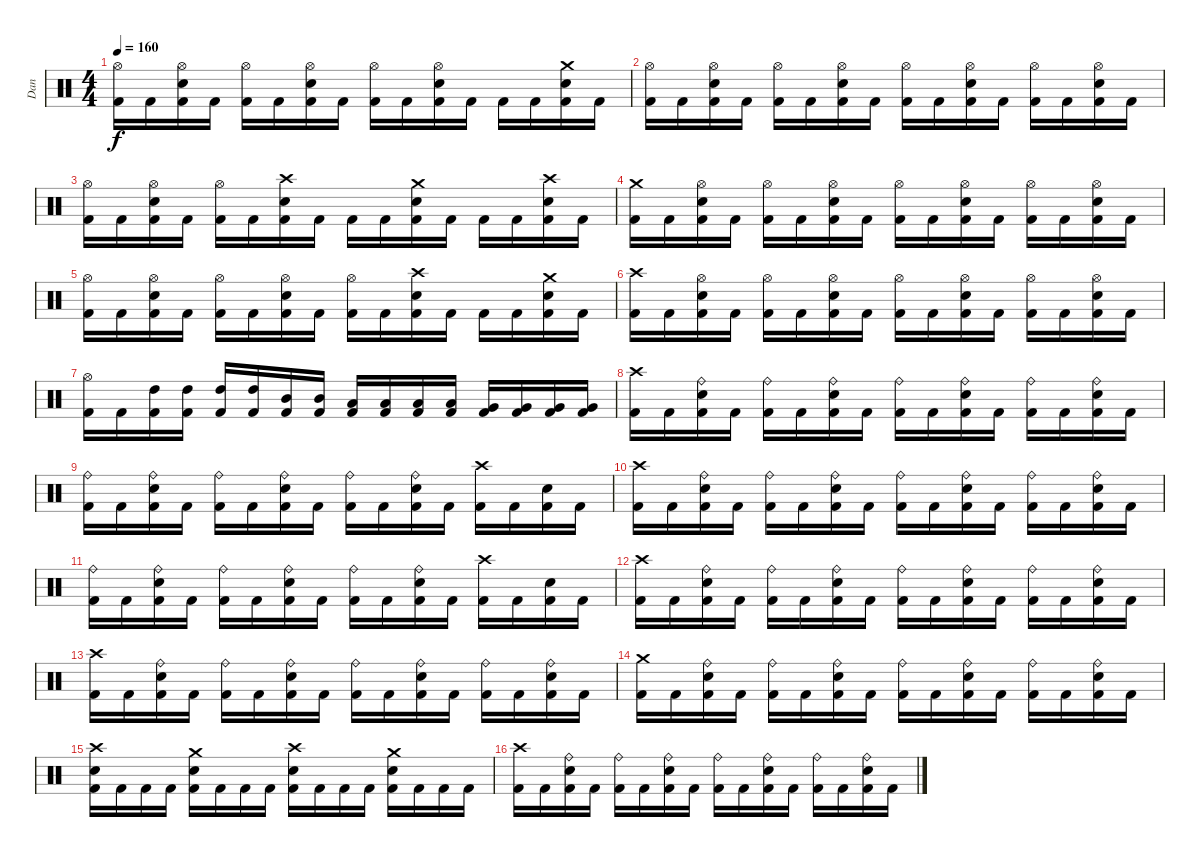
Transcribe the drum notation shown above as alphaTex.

\track ("Dan " "Dan ") {instrument percussion}
\staff {score}
\articulation defaults
\ts (4 4)
\tempo 160
\clef neutral
\ks c
("Kick (hit) 2" "Hi-Hat (open)").16{dy f} "Kick (hit) 2".16 ("Metronome (bell)" "Kick (hit) 2" "Hi-Hat (open)").16 "Kick (hit) 2".16 ("Kick (hit) 2" "Hi-Hat (open)").16 "Kick (hit) 2".16 ("Metronome (bell)" "Kick (hit) 2" "Hi-Hat (open)").16 "Kick (hit) 2".16 ("Kick (hit) 2" "Hi-Hat (open)").16 "Kick (hit) 2".16 ("Metronome (bell)" "Kick (hit) 2" "Hi-Hat (open)").16 "Kick (hit) 2".16 "Kick (hit) 2".16 "Kick (hit) 2".16 ("Metronome (bell)" "Kick (hit) 2" "Crash medium (hit)").16 "Kick (hit) 2".16 |
("Kick (hit) 2" "Hi-Hat (open)").16 "Kick (hit) 2".16 ("Metronome (bell)" "Kick (hit) 2" "Hi-Hat (open)").16 "Kick (hit) 2".16 ("Kick (hit) 2" "Hi-Hat (open)").16 "Kick (hit) 2".16 ("Metronome (bell)" "Kick (hit) 2" "Hi-Hat (open)").16 "Kick (hit) 2".16 ("Kick (hit) 2" "Hi-Hat (open)").16 "Kick (hit) 2".16 ("Metronome (bell)" "Kick (hit) 2" "Hi-Hat (open)").16 "Kick (hit) 2".16 ("Kick (hit) 2" "Hi-Hat (open)").16 "Kick (hit) 2".16 ("Metronome (bell)" "Kick (hit) 2" "Hi-Hat (open)").16 "Kick (hit) 2".16 |
("Kick (hit) 2" "Hi-Hat (open)").16 "Kick (hit) 2".16 ("Metronome (bell)" "Kick (hit) 2" "Hi-Hat (open)").16 "Kick (hit) 2".16 ("Kick (hit) 2" "Hi-Hat (open)").16 "Kick (hit) 2".16 ("Metronome (bell)" "Kick (hit) 2" "Crash high (hit)").16 "Kick (hit) 2".16 "Kick (hit) 2".16 "Kick (hit) 2".16 ("Metronome (bell)" "Kick (hit) 2" "Crash medium (hit)").16 "Kick (hit) 2".16 "Kick (hit) 2".16 "Kick (hit) 2".16 ("Metronome (bell)" "Kick (hit) 2" "Crash high (hit)").16 "Kick (hit) 2".16 |
("Kick (hit) 2" "Crash medium (hit)").16 "Kick (hit) 2".16 ("Metronome (bell)" "Kick (hit) 2" "Hi-Hat (open)").16 "Kick (hit) 2".16 ("Kick (hit) 2" "Hi-Hat (open)").16 "Kick (hit) 2".16 ("Metronome (bell)" "Kick (hit) 2" "Hi-Hat (open)").16 "Kick (hit) 2".16 ("Kick (hit) 2" "Hi-Hat (open)").16 "Kick (hit) 2".16 ("Metronome (bell)" "Kick (hit) 2" "Hi-Hat (open)").16 "Kick (hit) 2".16 ("Kick (hit) 2" "Hi-Hat (open)").16 "Kick (hit) 2".16 ("Metronome (bell)" "Kick (hit) 2" "Hi-Hat (open)").16 "Kick (hit) 2".16 |
("Kick (hit) 2" "Hi-Hat (open)").16 "Kick (hit) 2".16 ("Metronome (bell)" "Kick (hit) 2" "Hi-Hat (open)").16 "Kick (hit) 2".16 ("Kick (hit) 2" "Hi-Hat (open)").16 "Kick (hit) 2".16 ("Metronome (bell)" "Kick (hit) 2" "Hi-Hat (open)").16 "Kick (hit) 2".16 ("Kick (hit) 2" "Hi-Hat (open)").16 "Kick (hit) 2".16 ("Metronome (bell)" "Kick (hit) 2" "Crash high (hit)").16 "Kick (hit) 2".16 "Kick (hit) 2".16 "Kick (hit) 2".16 ("Metronome (bell)" "Kick (hit) 2" "Crash medium (hit)").16 "Kick (hit) 2".16 |
("Kick (hit) 2" "Crash high (hit)").16 "Kick (hit) 2".16 ("Metronome (bell)" "Kick (hit) 2" "Hi-Hat (open)").16 "Kick (hit) 2".16 ("Kick (hit) 2" "Hi-Hat (open)").16 "Kick (hit) 2".16 ("Metronome (bell)" "Kick (hit) 2" "Hi-Hat (open)").16 "Kick (hit) 2".16 ("Kick (hit) 2" "Hi-Hat (open)").16 "Kick (hit) 2".16 ("Metronome (bell)" "Kick (hit) 2" "Hi-Hat (open)").16 "Kick (hit) 2".16 ("Kick (hit) 2" "Hi-Hat (open)").16 "Kick (hit) 2".16 ("Metronome (bell)" "Kick (hit) 2" "Hi-Hat (open)").16 "Kick (hit) 2".16 |
("Kick (hit) 2" "Hi-Hat (open)").16 "Kick (hit) 2".16 ("Kick (hit) 2" "High Tom (hit)").16 ("Kick (hit) 2" "High Tom (hit)").16 ("Kick (hit) 2" "High Tom (hit)").16 ("Kick (hit) 2" "High Tom (hit)").16 ("Kick (hit) 2" "Mid Tom (hit)").16 ("Kick (hit) 2" "Mid Tom (hit)").16 ("Kick (hit) 2" "Low Tom (hit)").16 ("Kick (hit) 2" "Low Tom (hit)").16 ("Kick (hit) 2" "Low Tom (hit)").16 ("Kick (hit) 2" "Low Tom (hit)").16 ("Kick (hit) 2" "Very Low Tom (hit)").16 ("Kick (hit) 2" "Very Low Tom (hit)").16 ("Kick (hit) 2" "Very Low Tom (hit)").16 ("Kick (hit) 2" "Very Low Tom (hit)").16 |
("Kick (hit) 2" "Crash high (hit)").16 "Kick (hit) 2".16 ("Metronome (bell)" "Kick (hit) 2" "Ride (bell)").16 "Kick (hit) 2".16 ("Kick (hit) 2" "Ride (bell)").16 "Kick (hit) 2".16 ("Metronome (bell)" "Kick (hit) 2" "Ride (bell)").16 "Kick (hit) 2".16 ("Kick (hit) 2" "Ride (bell)").16 "Kick (hit) 2".16 ("Metronome (bell)" "Kick (hit) 2" "Ride (bell)").16 "Kick (hit) 2".16 ("Kick (hit) 2" "Ride (bell)").16 "Kick (hit) 2".16 ("Metronome (bell)" "Kick (hit) 2" "Ride (bell)").16 "Kick (hit) 2".16 |
("Kick (hit) 2" "Ride (bell)").16 "Kick (hit) 2".16 ("Metronome (bell)" "Kick (hit) 2" "Ride (bell)").16 "Kick (hit) 2".16 ("Kick (hit) 2" "Ride (bell)").16 "Kick (hit) 2".16 ("Metronome (bell)" "Kick (hit) 2" "Ride (bell)").16 "Kick (hit) 2".16 ("Kick (hit) 2" "Ride (bell)").16 "Kick (hit) 2".16 ("Metronome (bell)" "Kick (hit) 2" "Ride (bell)").16 "Kick (hit) 2".16 ("Kick (hit) 2" "Crash high (hit)").16 "Kick (hit) 2".16 ("Metronome (bell)" "Kick (hit) 2").16 "Kick (hit) 2".16 |
("Kick (hit) 2" "Crash high (hit)").16 "Kick (hit) 2".16 ("Metronome (bell)" "Kick (hit) 2" "Ride (bell)").16 "Kick (hit) 2".16 ("Kick (hit) 2" "Ride (bell)").16 "Kick (hit) 2".16 ("Metronome (bell)" "Kick (hit) 2" "Ride (bell)").16 "Kick (hit) 2".16 ("Kick (hit) 2" "Ride (bell)").16 "Kick (hit) 2".16 ("Metronome (bell)" "Kick (hit) 2" "Ride (bell)").16 "Kick (hit) 2".16 ("Kick (hit) 2" "Ride (bell)").16 "Kick (hit) 2".16 ("Metronome (bell)" "Kick (hit) 2" "Ride (bell)").16 "Kick (hit) 2".16 |
("Kick (hit) 2" "Ride (bell)").16 "Kick (hit) 2".16 ("Metronome (bell)" "Kick (hit) 2" "Ride (bell)").16 "Kick (hit) 2".16 ("Kick (hit) 2" "Ride (bell)").16 "Kick (hit) 2".16 ("Metronome (bell)" "Kick (hit) 2" "Ride (bell)").16 "Kick (hit) 2".16 ("Kick (hit) 2" "Ride (bell)").16 "Kick (hit) 2".16 ("Metronome (bell)" "Kick (hit) 2" "Ride (bell)").16 "Kick (hit) 2".16 ("Kick (hit) 2" "Crash high (hit)").16 "Kick (hit) 2".16 ("Metronome (bell)" "Kick (hit) 2").16 "Kick (hit) 2".16 |
("Kick (hit) 2" "Crash high (hit)").16 "Kick (hit) 2".16 ("Metronome (bell)" "Kick (hit) 2" "Ride (bell)").16 "Kick (hit) 2".16 ("Kick (hit) 2" "Ride (bell)").16 "Kick (hit) 2".16 ("Metronome (bell)" "Kick (hit) 2" "Ride (bell)").16 "Kick (hit) 2".16 ("Kick (hit) 2" "Ride (bell)").16 "Kick (hit) 2".16 ("Metronome (bell)" "Kick (hit) 2" "Ride (bell)").16 "Kick (hit) 2".16 ("Kick (hit) 2" "Ride (bell)").16 "Kick (hit) 2".16 ("Metronome (bell)" "Kick (hit) 2" "Ride (bell)").16 "Kick (hit) 2".16 |
("Kick (hit) 2" "Crash high (hit)").16 "Kick (hit) 2".16 ("Metronome (bell)" "Kick (hit) 2" "Ride (bell)").16 "Kick (hit) 2".16 ("Kick (hit) 2" "Ride (bell)").16 "Kick (hit) 2".16 ("Metronome (bell)" "Kick (hit) 2" "Ride (bell)").16 "Kick (hit) 2".16 ("Kick (hit) 2" "Ride (bell)").16 "Kick (hit) 2".16 ("Metronome (bell)" "Kick (hit) 2" "Ride (bell)").16 "Kick (hit) 2".16 ("Kick (hit) 2" "Ride (bell)").16 "Kick (hit) 2".16 ("Metronome (bell)" "Kick (hit) 2" "Ride (bell)").16 "Kick (hit) 2".16 |
("Kick (hit) 2" "Crash medium (hit)").16 "Kick (hit) 2".16 ("Metronome (bell)" "Kick (hit) 2" "Ride (bell)").16 "Kick (hit) 2".16 ("Kick (hit) 2" "Ride (bell)").16 "Kick (hit) 2".16 ("Metronome (bell)" "Kick (hit) 2" "Ride (bell)").16 "Kick (hit) 2".16 ("Kick (hit) 2" "Ride (bell)").16 "Kick (hit) 2".16 ("Metronome (bell)" "Kick (hit) 2" "Ride (bell)").16 "Kick (hit) 2".16 ("Kick (hit) 2" "Ride (bell)").16 "Kick (hit) 2".16 ("Metronome (bell)" "Kick (hit) 2" "Ride (bell)").16 "Kick (hit) 2".16 |
("Metronome (bell)" "Kick (hit) 2" "Crash high (hit)").16 "Kick (hit) 2".16 "Kick (hit) 2".16 "Kick (hit) 2".16 ("Metronome (bell)" "Kick (hit) 2" "Crash medium (hit)").16 "Kick (hit) 2".16 "Kick (hit) 2".16 "Kick (hit) 2".16 ("Metronome (bell)" "Kick (hit) 2" "Crash high (hit)").16 "Kick (hit) 2".16 "Kick (hit) 2".16 "Kick (hit) 2".16 ("Metronome (bell)" "Kick (hit) 2" "Crash medium (hit)").16 "Kick (hit) 2".16 "Kick (hit) 2".16 "Kick (hit) 2".16 |
("Kick (hit) 2" "Crash high (hit)").16 "Kick (hit) 2".16 ("Metronome (bell)" "Kick (hit) 2" "Ride (bell)").16 "Kick (hit) 2".16 ("Kick (hit) 2" "Ride (bell)").16 "Kick (hit) 2".16 ("Metronome (bell)" "Kick (hit) 2" "Ride (bell)").16 "Kick (hit) 2".16 ("Kick (hit) 2" "Ride (bell)").16 "Kick (hit) 2".16 ("Metronome (bell)" "Kick (hit) 2" "Ride (bell)").16 "Kick (hit) 2".16 ("Kick (hit) 2" "Ride (bell)").16 "Kick (hit) 2".16 ("Metronome (bell)" "Kick (hit) 2" "Ride (bell)").16 "Kick (hit) 2".16
